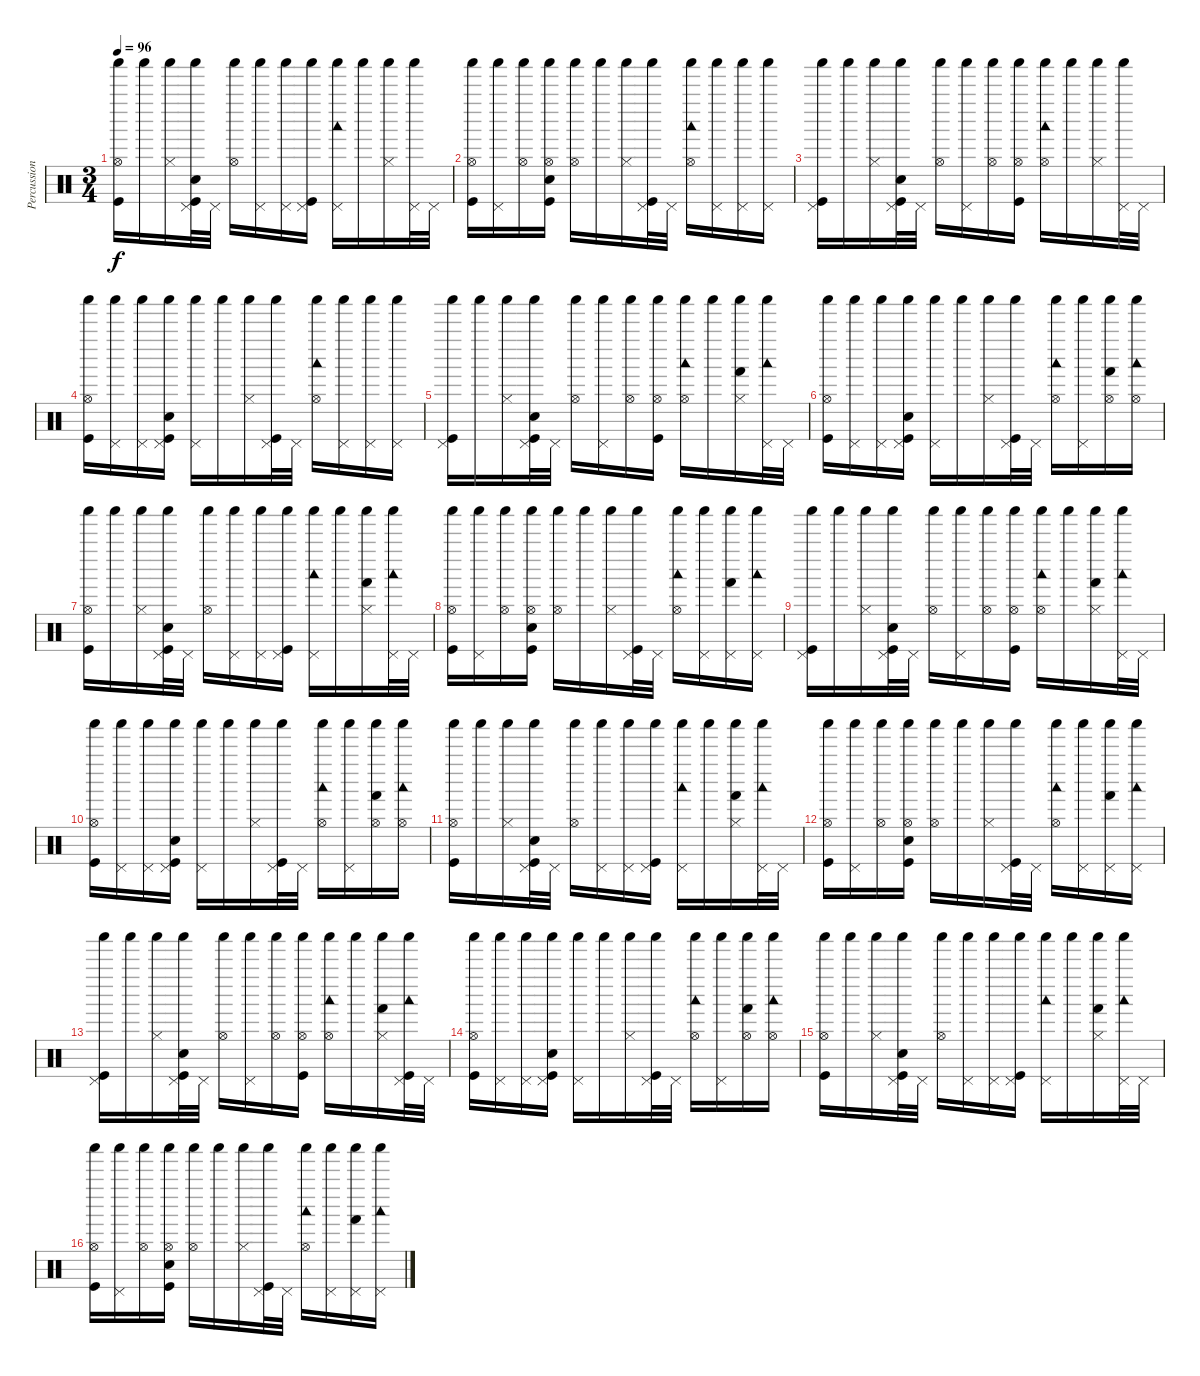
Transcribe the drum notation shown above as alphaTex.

\track ("Percussions" "Percussion") {instrument percussion}
\staff {score}
\articulation defaults
\ts (3 4)
\tempo 96
\clef neutral
\ks c
("Hi-Hat (open)" "Shaker (hit)" "Kick (hit)").16{dy f} "Shaker (hit)".16 ("Hi-Hat (closed)" "Shaker (hit)").16 ("Pedal Hi-Hat (hit)" "Shaker (hit)" "Metronome (bell)" "Kick (hit)").32 "Pedal Hi-Hat (hit)".32 ("Hi-Hat (open)" "Shaker (hit)").16 ("Pedal Hi-Hat (hit)" "Shaker (hit)").16 ("Pedal Hi-Hat (hit)" "Shaker (hit)").16 ("Pedal Hi-Hat (hit)" "Shaker (hit)" "Kick (hit)").16 ("Pedal Hi-Hat (hit)" "Shaker (hit)" "Woodblock low (hit)").16 "Shaker (hit)".16 ("Hi-Hat (closed)" "Shaker (hit)").16 ("Pedal Hi-Hat (hit)" "Shaker (hit)").32 "Pedal Hi-Hat (hit)".32 |
("Hi-Hat (open)" "Shaker (hit)" "Kick (hit)").16 ("Pedal Hi-Hat (hit)" "Shaker (hit)").16 ("Hi-Hat (open)" "Shaker (hit)").16 ("Hi-Hat (open)" "Shaker (hit)" "Metronome (bell)" "Kick (hit)").16 ("Hi-Hat (open)" "Shaker (hit)").16 "Shaker (hit)".16 ("Hi-Hat (closed)" "Shaker (hit)").16 ("Pedal Hi-Hat (hit)" "Shaker (hit)" "Kick (hit)").32 "Pedal Hi-Hat (hit)".32 ("Hi-Hat (open)" "Shaker (hit)" "Woodblock low (hit)").16 ("Pedal Hi-Hat (hit)" "Shaker (hit)").16 ("Pedal Hi-Hat (hit)" "Shaker (hit)").16 ("Pedal Hi-Hat (hit)" "Shaker (hit)").16 |
("Pedal Hi-Hat (hit)" "Shaker (hit)" "Kick (hit)").16 "Shaker (hit)".16 ("Hi-Hat (closed)" "Shaker (hit)").16 ("Pedal Hi-Hat (hit)" "Shaker (hit)" "Metronome (bell)" "Kick (hit)").32 "Pedal Hi-Hat (hit)".32 ("Hi-Hat (open)" "Shaker (hit)").16 ("Pedal Hi-Hat (hit)" "Shaker (hit)").16 ("Hi-Hat (open)" "Shaker (hit)").16 ("Hi-Hat (open)" "Shaker (hit)" "Kick (hit)").16 ("Hi-Hat (open)" "Shaker (hit)" "Woodblock low (hit)").16 "Shaker (hit)".16 ("Hi-Hat (closed)" "Shaker (hit)").16 ("Pedal Hi-Hat (hit)" "Shaker (hit)").32 "Pedal Hi-Hat (hit)".32 |
("Hi-Hat (open)" "Shaker (hit)" "Kick (hit)").16 ("Pedal Hi-Hat (hit)" "Shaker (hit)").16 ("Pedal Hi-Hat (hit)" "Shaker (hit)").16 ("Pedal Hi-Hat (hit)" "Shaker (hit)" "Metronome (bell)" "Kick (hit)").16 ("Pedal Hi-Hat (hit)" "Shaker (hit)").16 "Shaker (hit)".16 ("Hi-Hat (closed)" "Shaker (hit)").16 ("Pedal Hi-Hat (hit)" "Shaker (hit)" "Kick (hit)").32 "Pedal Hi-Hat (hit)".32 ("Hi-Hat (open)" "Shaker (hit)" "Woodblock low (hit)").16 ("Pedal Hi-Hat (hit)" "Shaker (hit)").16 ("Pedal Hi-Hat (hit)" "Shaker (hit)").16 ("Pedal Hi-Hat (hit)" "Shaker (hit)").16 |
("Pedal Hi-Hat (hit)" "Shaker (hit)" "Kick (hit)").16 "Shaker (hit)".16 ("Hi-Hat (closed)" "Shaker (hit)").16 ("Pedal Hi-Hat (hit)" "Shaker (hit)" "Metronome (bell)" "Kick (hit)").32 "Pedal Hi-Hat (hit)".32 ("Hi-Hat (open)" "Shaker (hit)").16 ("Pedal Hi-Hat (hit)" "Shaker (hit)").16 ("Hi-Hat (open)" "Shaker (hit)").16 ("Hi-Hat (open)" "Shaker (hit)" "Kick (hit)").16 ("Hi-Hat (open)" "Shaker (hit)" "Woodblock low (hit)").16 "Shaker (hit)".16 ("Hi-Hat (closed)" "Shaker (hit)" "Hand (hit)").16 ("Pedal Hi-Hat (hit)" "Shaker (hit)" "Woodblock low (hit)").32 "Pedal Hi-Hat (hit)".32 |
("Hi-Hat (open)" "Shaker (hit)" "Kick (hit)").16 ("Pedal Hi-Hat (hit)" "Shaker (hit)").16 ("Pedal Hi-Hat (hit)" "Shaker (hit)").16 ("Pedal Hi-Hat (hit)" "Shaker (hit)" "Metronome (bell)" "Kick (hit)").16 ("Pedal Hi-Hat (hit)" "Shaker (hit)").16 "Shaker (hit)".16 ("Hi-Hat (closed)" "Shaker (hit)").16 ("Pedal Hi-Hat (hit)" "Shaker (hit)" "Kick (hit)").32 "Pedal Hi-Hat (hit)".32 ("Hi-Hat (open)" "Shaker (hit)" "Woodblock low (hit)").16 ("Pedal Hi-Hat (hit)" "Shaker (hit)").16 ("Hi-Hat (open)" "Shaker (hit)" "Hand (hit)").16 ("Hi-Hat (open)" "Shaker (hit)" "Woodblock low (hit)").16 |
("Hi-Hat (open)" "Shaker (hit)" "Kick (hit)").16 "Shaker (hit)".16 ("Hi-Hat (closed)" "Shaker (hit)").16 ("Pedal Hi-Hat (hit)" "Shaker (hit)" "Metronome (bell)" "Kick (hit)").32 "Pedal Hi-Hat (hit)".32 ("Hi-Hat (open)" "Shaker (hit)").16 ("Pedal Hi-Hat (hit)" "Shaker (hit)").16 ("Pedal Hi-Hat (hit)" "Shaker (hit)").16 ("Pedal Hi-Hat (hit)" "Shaker (hit)" "Kick (hit)").16 ("Pedal Hi-Hat (hit)" "Shaker (hit)" "Woodblock low (hit)").16 "Shaker (hit)".16 ("Hi-Hat (closed)" "Shaker (hit)" "Hand (hit)").16 ("Pedal Hi-Hat (hit)" "Shaker (hit)" "Woodblock low (hit)").32 "Pedal Hi-Hat (hit)".32 |
("Hi-Hat (open)" "Shaker (hit)" "Kick (hit)").16 ("Pedal Hi-Hat (hit)" "Shaker (hit)").16 ("Hi-Hat (open)" "Shaker (hit)").16 ("Hi-Hat (open)" "Shaker (hit)" "Metronome (bell)" "Kick (hit)").16 ("Hi-Hat (open)" "Shaker (hit)").16 "Shaker (hit)".16 ("Hi-Hat (closed)" "Shaker (hit)").16 ("Pedal Hi-Hat (hit)" "Shaker (hit)" "Kick (hit)").32 "Pedal Hi-Hat (hit)".32 ("Hi-Hat (open)" "Shaker (hit)" "Woodblock low (hit)").16 ("Pedal Hi-Hat (hit)" "Shaker (hit)").16 ("Pedal Hi-Hat (hit)" "Shaker (hit)" "Hand (hit)").16 ("Pedal Hi-Hat (hit)" "Shaker (hit)" "Woodblock low (hit)").16 |
("Pedal Hi-Hat (hit)" "Shaker (hit)" "Kick (hit)").16 "Shaker (hit)".16 ("Hi-Hat (closed)" "Shaker (hit)").16 ("Pedal Hi-Hat (hit)" "Shaker (hit)" "Metronome (bell)" "Kick (hit)").32 "Pedal Hi-Hat (hit)".32 ("Hi-Hat (open)" "Shaker (hit)").16 ("Pedal Hi-Hat (hit)" "Shaker (hit)").16 ("Hi-Hat (open)" "Shaker (hit)").16 ("Hi-Hat (open)" "Shaker (hit)" "Kick (hit)").16 ("Hi-Hat (open)" "Shaker (hit)" "Woodblock low (hit)").16 "Shaker (hit)".16 ("Hi-Hat (closed)" "Shaker (hit)" "Hand (hit)").16 ("Pedal Hi-Hat (hit)" "Shaker (hit)" "Woodblock low (hit)").32 "Pedal Hi-Hat (hit)".32 |
("Hi-Hat (open)" "Shaker (hit)" "Kick (hit)").16 ("Pedal Hi-Hat (hit)" "Shaker (hit)").16 ("Pedal Hi-Hat (hit)" "Shaker (hit)").16 ("Pedal Hi-Hat (hit)" "Shaker (hit)" "Metronome (bell)" "Kick (hit)").16 ("Pedal Hi-Hat (hit)" "Shaker (hit)").16 "Shaker (hit)".16 ("Hi-Hat (closed)" "Shaker (hit)").16 ("Pedal Hi-Hat (hit)" "Shaker (hit)" "Kick (hit)").32 "Pedal Hi-Hat (hit)".32 ("Hi-Hat (open)" "Shaker (hit)" "Woodblock low (hit)").16 ("Pedal Hi-Hat (hit)" "Shaker (hit)").16 ("Hi-Hat (open)" "Shaker (hit)" "Hand (hit)").16 ("Hi-Hat (open)" "Shaker (hit)" "Woodblock low (hit)").16 |
("Hi-Hat (open)" "Shaker (hit)" "Kick (hit)").16 "Shaker (hit)".16 ("Hi-Hat (closed)" "Shaker (hit)").16 ("Pedal Hi-Hat (hit)" "Shaker (hit)" "Metronome (bell)" "Kick (hit)").32 "Pedal Hi-Hat (hit)".32 ("Hi-Hat (open)" "Shaker (hit)").16 ("Pedal Hi-Hat (hit)" "Shaker (hit)").16 ("Pedal Hi-Hat (hit)" "Shaker (hit)").16 ("Pedal Hi-Hat (hit)" "Shaker (hit)" "Kick (hit)").16 ("Pedal Hi-Hat (hit)" "Shaker (hit)" "Woodblock low (hit)").16 "Shaker (hit)".16 ("Hi-Hat (closed)" "Shaker (hit)" "Hand (hit)").16 ("Pedal Hi-Hat (hit)" "Shaker (hit)" "Woodblock low (hit)").32 "Pedal Hi-Hat (hit)".32 |
("Hi-Hat (open)" "Shaker (hit)" "Kick (hit)").16 ("Pedal Hi-Hat (hit)" "Shaker (hit)").16 ("Hi-Hat (open)" "Shaker (hit)").16 ("Hi-Hat (open)" "Shaker (hit)" "Metronome (bell)" "Kick (hit)").16 ("Hi-Hat (open)" "Shaker (hit)").16 "Shaker (hit)".16 ("Hi-Hat (closed)" "Shaker (hit)").16 ("Pedal Hi-Hat (hit)" "Shaker (hit)" "Kick (hit)").32 "Pedal Hi-Hat (hit)".32 ("Hi-Hat (open)" "Shaker (hit)" "Woodblock low (hit)").16 ("Pedal Hi-Hat (hit)" "Shaker (hit)").16 ("Pedal Hi-Hat (hit)" "Shaker (hit)" "Hand (hit)").16 ("Pedal Hi-Hat (hit)" "Shaker (hit)" "Woodblock low (hit)").16 |
("Pedal Hi-Hat (hit)" "Shaker (hit)" "Kick (hit)").16 "Shaker (hit)".16 ("Hi-Hat (closed)" "Shaker (hit)").16 ("Pedal Hi-Hat (hit)" "Shaker (hit)" "Metronome (bell)" "Kick (hit)").32 "Pedal Hi-Hat (hit)".32 ("Hi-Hat (open)" "Shaker (hit)").16 ("Pedal Hi-Hat (hit)" "Shaker (hit)").16 ("Hi-Hat (open)" "Shaker (hit)").16 ("Hi-Hat (open)" "Shaker (hit)" "Kick (hit)").16 ("Hi-Hat (open)" "Shaker (hit)" "Woodblock low (hit)").16 "Shaker (hit)".16 ("Hi-Hat (closed)" "Shaker (hit)" "Hand (hit)").16 ("Pedal Hi-Hat (hit)" "Shaker (hit)" "Woodblock low (hit)" "Kick (hit)").32 "Pedal Hi-Hat (hit)".32 |
("Hi-Hat (open)" "Shaker (hit)" "Kick (hit)").16 ("Pedal Hi-Hat (hit)" "Shaker (hit)").16 ("Pedal Hi-Hat (hit)" "Shaker (hit)").16 ("Pedal Hi-Hat (hit)" "Shaker (hit)" "Metronome (bell)" "Kick (hit)").16 ("Pedal Hi-Hat (hit)" "Shaker (hit)").16 "Shaker (hit)".16 ("Hi-Hat (closed)" "Shaker (hit)").16 ("Pedal Hi-Hat (hit)" "Shaker (hit)" "Kick (hit)").32 "Pedal Hi-Hat (hit)".32 ("Hi-Hat (open)" "Shaker (hit)" "Woodblock low (hit)").16 ("Pedal Hi-Hat (hit)" "Shaker (hit)").16 ("Hi-Hat (open)" "Shaker (hit)" "Hand (hit)").16 ("Hi-Hat (open)" "Shaker (hit)" "Woodblock low (hit)").16 |
("Hi-Hat (open)" "Shaker (hit)" "Kick (hit)").16 "Shaker (hit)".16 ("Hi-Hat (closed)" "Shaker (hit)").16 ("Pedal Hi-Hat (hit)" "Shaker (hit)" "Metronome (bell)" "Kick (hit)").32 "Pedal Hi-Hat (hit)".32 ("Hi-Hat (open)" "Shaker (hit)").16 ("Pedal Hi-Hat (hit)" "Shaker (hit)").16 ("Pedal Hi-Hat (hit)" "Shaker (hit)").16 ("Pedal Hi-Hat (hit)" "Shaker (hit)" "Kick (hit)").16 ("Pedal Hi-Hat (hit)" "Shaker (hit)" "Woodblock low (hit)").16 "Shaker (hit)".16 ("Hi-Hat (closed)" "Shaker (hit)" "Hand (hit)").16 ("Pedal Hi-Hat (hit)" "Shaker (hit)" "Woodblock low (hit)").32 "Pedal Hi-Hat (hit)".32 |
("Hi-Hat (open)" "Shaker (hit)" "Kick (hit)").16 ("Pedal Hi-Hat (hit)" "Shaker (hit)").16 ("Hi-Hat (open)" "Shaker (hit)").16 ("Hi-Hat (open)" "Shaker (hit)" "Metronome (bell)" "Kick (hit)").16 ("Hi-Hat (open)" "Shaker (hit)").16 "Shaker (hit)".16 ("Hi-Hat (closed)" "Shaker (hit)").16 ("Pedal Hi-Hat (hit)" "Shaker (hit)" "Kick (hit)").32 "Pedal Hi-Hat (hit)".32 ("Hi-Hat (open)" "Shaker (hit)" "Woodblock low (hit)").16 ("Pedal Hi-Hat (hit)" "Shaker (hit)").16 ("Pedal Hi-Hat (hit)" "Shaker (hit)" "Hand (hit)").16 ("Pedal Hi-Hat (hit)" "Shaker (hit)" "Woodblock low (hit)").16
